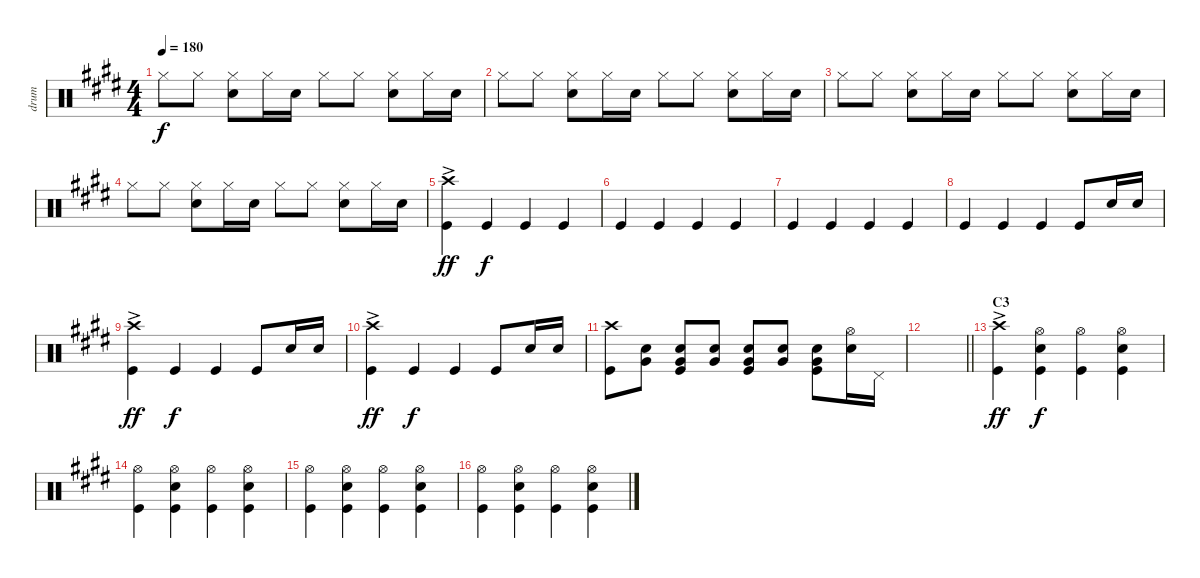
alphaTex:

\track ("drum" "drum") {instrument percussion}
\staff {score}
\articulation defaults
\ts (4 4)
\tempo 180
\clef neutral
\ks e "Hi-Hat (closed)".8{dy f} "Hi-Hat (closed)".8
("Hi-Hat (closed)" "Snare (hit) 2").8 "Hi-Hat (closed)".16 "Snare (hit) 2".16 "Hi-Hat (closed)".8 "Hi-Hat (closed)".8 ("Hi-Hat (closed)" "Snare (hit) 2").8 "Hi-Hat (closed)".16 "Snare (hit) 2".16 |
"Hi-Hat (closed)".8 "Hi-Hat (closed)".8 ("Hi-Hat (closed)" "Snare (hit) 2").8 "Hi-Hat (closed)".16 "Snare (hit) 2".16 "Hi-Hat (closed)".8 "Hi-Hat (closed)".8 ("Hi-Hat (closed)" "Snare (hit) 2").8 "Hi-Hat (closed)".16 "Snare (hit) 2".16 |
"Hi-Hat (closed)".8 "Hi-Hat (closed)".8 ("Hi-Hat (closed)" "Snare (hit) 2").8 "Hi-Hat (closed)".16 "Snare (hit) 2".16 "Hi-Hat (closed)".8 "Hi-Hat (closed)".8 ("Hi-Hat (closed)" "Snare (hit) 2").8 "Hi-Hat (closed)".16 "Snare (hit) 2".16 |
"Hi-Hat (closed)".8 "Hi-Hat (closed)".8 ("Hi-Hat (closed)" "Snare (hit) 2").8 "Hi-Hat (closed)".16 "Snare (hit) 2".16 "Hi-Hat (closed)".8 "Hi-Hat (closed)".8 ("Hi-Hat (closed)" "Snare (hit) 2").8 "Hi-Hat (closed)".16 "Snare (hit) 2".16 |
("Crash high (hit)"{ac} "Kick (hit)").4{dy ff volume 15} "Kick (hit)".4{dy f} "Kick (hit)".4 "Kick (hit)".4 |
"Kick (hit)".4 "Kick (hit)".4 "Kick (hit)".4 "Kick (hit)".4 |
"Kick (hit)".4 "Kick (hit)".4 "Kick (hit)".4 "Kick (hit)".4 |
"Kick (hit)".4 "Kick (hit)".4 "Kick (hit)".4 "Kick (hit)".8 "Snare (hit) 2".16 "Snare (hit) 2".16 |
("Crash high (hit)"{ac} "Kick (hit)").4{dy ff} "Kick (hit)".4{dy f} "Kick (hit)".4 "Kick (hit)".8 "Snare (hit) 2".16 "Snare (hit) 2".16 |
("Crash high (hit)"{ac} "Kick (hit)").4{dy ff} "Kick (hit)".4{dy f} "Kick (hit)".4 "Kick (hit)".8 "Snare (hit) 2".16 "Snare (hit) 2".16 |
("Crash high (hit)" "Kick (hit)").8 ("Snare (hit) 2" "Very Low Tom (hit)").8 ("Snare (hit) 2" "Very Low Tom (hit)" "Kick (hit)").8 ("Snare (hit) 2" "Very Low Tom (hit)").8 ("Snare (hit) 2" "Very Low Tom (hit)" "Kick (hit)").8 ("Snare (hit) 2" "Very Low Tom (hit)").8 ("Snare (hit) 2" "Very Low Tom (hit)" "Kick (hit)").8 ("Snare (hit) 2" "Hi-Hat (open)").16 "Pedal Hi-Hat (hit)".16 |
\barLineRight lightlight
|
\section ("" "C3")
("Crash high (hit)"{ac} "Kick (hit)").4{dy ff} ("Hi-Hat (open)" "Snare (hit) 2" "Kick (hit)").4{dy f} ("Hi-Hat (open)" "Kick (hit)").4 ("Hi-Hat (open)" "Snare (hit) 2" "Kick (hit)").4 |
("Hi-Hat (open)" "Kick (hit)").4 ("Hi-Hat (open)" "Snare (hit) 2" "Kick (hit)").4 ("Hi-Hat (open)" "Kick (hit)").4 ("Hi-Hat (open)" "Snare (hit) 2" "Kick (hit)").4 |
("Hi-Hat (open)" "Kick (hit)").4 ("Hi-Hat (open)" "Snare (hit) 2" "Kick (hit)").4 ("Hi-Hat (open)" "Kick (hit)").4 ("Hi-Hat (open)" "Snare (hit) 2" "Kick (hit)").4 |
("Hi-Hat (open)" "Kick (hit)").4 ("Hi-Hat (open)" "Snare (hit) 2" "Kick (hit)").4 ("Hi-Hat (open)" "Kick (hit)").4 ("Hi-Hat (open)" "Snare (hit) 2" "Kick (hit)").4
